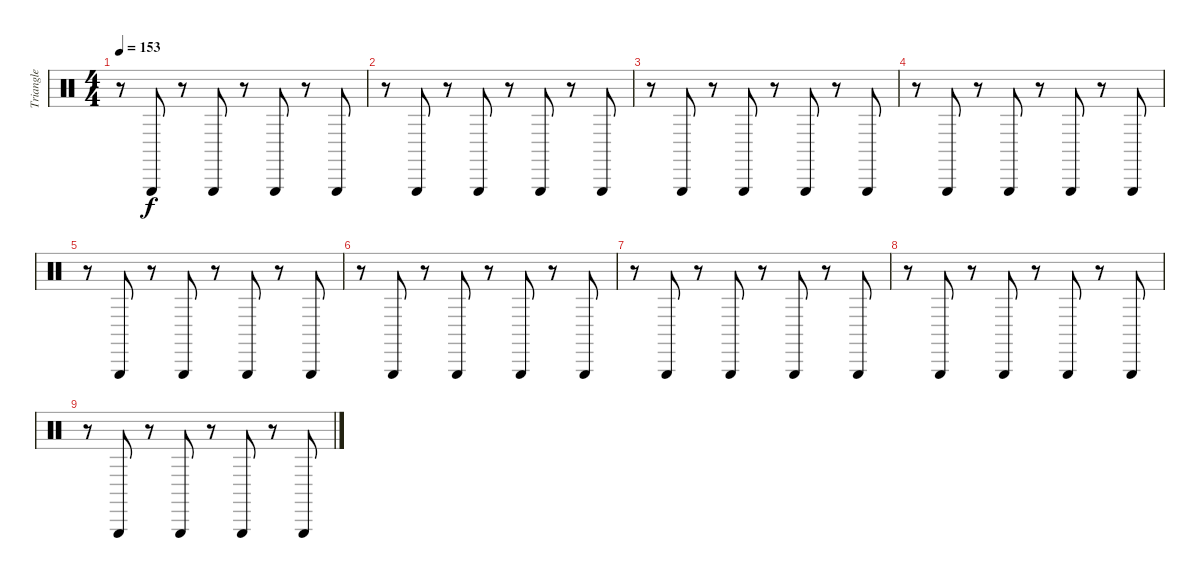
\track ("Triangle" "Triangle") {instrument percussion}
\staff {score}
\articulation defaults
\ts (4 4)
\tempo 153
\clef neutral
\ks c
r.8{dy f} "Triangle (hit)".8 r.8 "Triangle (hit)".8 r.8 "Triangle (hit)".8 r.8 "Triangle (hit)".8 |
r.8 "Triangle (hit)".8 r.8 "Triangle (hit)".8 r.8 "Triangle (hit)".8 r.8 "Triangle (hit)".8 |
r.8 "Triangle (hit)".8 r.8 "Triangle (hit)".8 r.8 "Triangle (hit)".8 r.8 "Triangle (hit)".8 |
r.8 "Triangle (hit)".8 r.8 "Triangle (hit)".8 r.8 "Triangle (hit)".8 r.8 "Triangle (hit)".8 |
r.8 "Triangle (hit)".8 r.8 "Triangle (hit)".8 r.8 "Triangle (hit)".8 r.8 "Triangle (hit)".8 |
r.8 "Triangle (hit)".8 r.8 "Triangle (hit)".8 r.8 "Triangle (hit)".8 r.8 "Triangle (hit)".8 |
r.8 "Triangle (hit)".8 r.8 "Triangle (hit)".8 r.8 "Triangle (hit)".8 r.8 "Triangle (hit)".8 |
r.8 "Triangle (hit)".8 r.8 "Triangle (hit)".8 r.8 "Triangle (hit)".8 r.8 "Triangle (hit)".8 |
r.8 "Triangle (hit)".8 r.8 "Triangle (hit)".8 r.8 "Triangle (hit)".8 r.8 "Triangle (hit)".8
